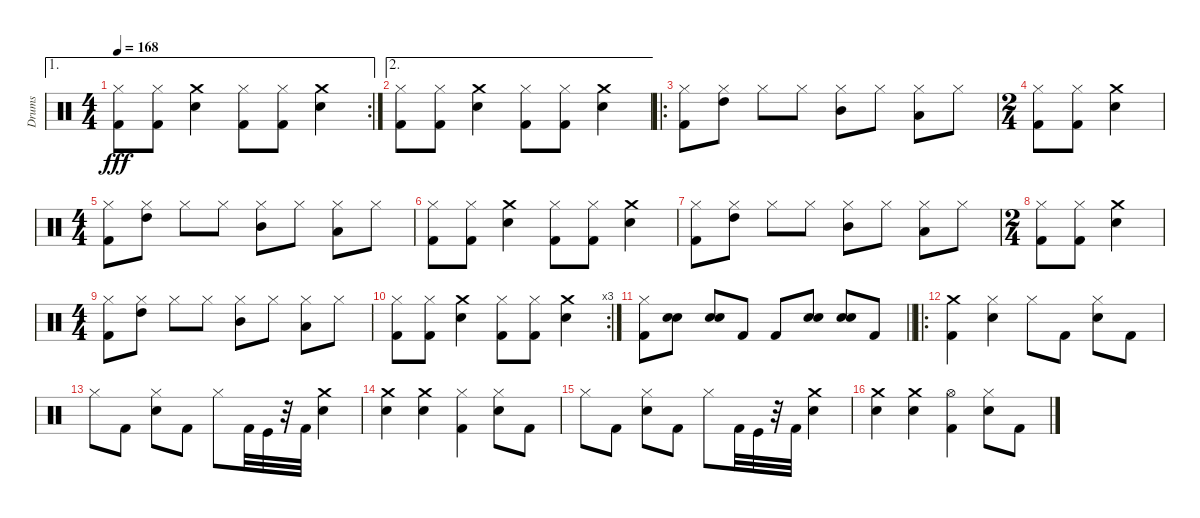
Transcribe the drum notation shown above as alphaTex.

\track ("Drums" "Drums") {instrument percussion}
\staff {score}
\articulation defaults
\ae 1
\rc 2
\ts (4 4)
\tempo 168
\clef neutral
\ks c
("Hi-Hat (closed)" "Kick (hit) 2").8{dy fff} ("Hi-Hat (closed)" "Kick (hit) 2").8 ("Snare (hit) 2" "Crash medium (hit)").4 ("Kick (hit) 2" "Hi-Hat (closed)").8 ("Kick (hit) 2" "Hi-Hat (closed)").8 ("Crash medium (hit)" "Snare (hit) 2").4 |
\ae 2
("Hi-Hat (closed)" "Kick (hit) 2").8 ("Hi-Hat (closed)" "Kick (hit) 2").8 ("Snare (hit) 2" "Crash medium (hit)").4 ("Kick (hit) 2" "Hi-Hat (closed)").8 ("Kick (hit) 2" "Hi-Hat (closed)").8 ("Crash medium (hit)" "Snare (hit) 2").4 |
\ro
("Hi-Hat (closed)" "Kick (hit) 2").8 ("High Tom (hit)" "Hi-Hat (closed)").8{balance 16} "Hi-Hat (closed)".8{balance 8} "Hi-Hat (closed)".8 ("Mid Tom (hit)" "Hi-Hat (closed)").8 "Hi-Hat (closed)".8 ("Low Tom (hit)" "Hi-Hat (closed)").8{balance 0} "Hi-Hat (closed)".8{balance 8} |
\ts (2 4)
("Kick (hit) 2" "Hi-Hat (closed)").8 ("Kick (hit) 2" "Hi-Hat (closed)").8 ("Snare (hit) 2" "Crash medium (hit)").4 |
\ts (4 4)
("Hi-Hat (closed)" "Kick (hit) 2").8 ("High Tom (hit)" "Hi-Hat (closed)").8{balance 16} "Hi-Hat (closed)".8{balance 8} "Hi-Hat (closed)".8 ("Mid Tom (hit)" "Hi-Hat (closed)").8 "Hi-Hat (closed)".8 ("Hi-Hat (closed)" "Low Tom (hit)").8{balance 0} "Hi-Hat (closed)".8{balance 8} |
("Hi-Hat (closed)" "Kick (hit) 2").8 ("Hi-Hat (closed)" "Kick (hit) 2").8 ("Snare (hit) 2" "Crash medium (hit)").4 ("Kick (hit) 2" "Hi-Hat (closed)").8 ("Kick (hit) 2" "Hi-Hat (closed)").8 ("Crash medium (hit)" "Snare (hit) 2").4 |
("Hi-Hat (closed)" "Kick (hit) 2").8 ("High Tom (hit)" "Hi-Hat (closed)").8{balance 16} "Hi-Hat (closed)".8{balance 8} "Hi-Hat (closed)".8 ("Mid Tom (hit)" "Hi-Hat (closed)").8 "Hi-Hat (closed)".8 ("Hi-Hat (closed)" "Low Tom (hit)").8{balance 0} "Hi-Hat (closed)".8{balance 8} |
\ts (2 4)
("Hi-Hat (closed)" "Kick (hit) 2").8 ("Hi-Hat (closed)" "Kick (hit) 2").8 ("Crash medium (hit)" "Snare (hit) 2").4 |
\ts (4 4)
("Hi-Hat (closed)" "Kick (hit) 2").8 ("High Tom (hit)" "Hi-Hat (closed)").8{balance 16} "Hi-Hat (closed)".8{balance 8} "Hi-Hat (closed)".8 ("Mid Tom (hit)" "Hi-Hat (closed)").8 "Hi-Hat (closed)".8 ("Hi-Hat (closed)" "Low Tom (hit)").8{balance 0} "Hi-Hat (closed)".8{balance 8} |
\rc 3
("Hi-Hat (closed)" "Kick (hit) 2").8 ("Hi-Hat (closed)" "Kick (hit) 2").8 ("Snare (hit) 2" "Crash medium (hit)").4 ("Kick (hit) 2" "Hi-Hat (closed)").8 ("Kick (hit) 2" "Hi-Hat (closed)").8 ("Crash medium (hit)" "Snare (hit) 2").4 |
\barLineRight lightlight
("Kick (hit) 2" "Hi-Hat (closed)").8 ("Snare (hit) 2" "Snare (hit) 2").8 ("Snare (hit) 2" "Snare (hit) 2").8 "Kick (hit) 2".8 "Kick (hit) 2".8 ("Snare (hit) 2" "Snare (hit) 2").8 ("Snare (hit) 2" "Snare (hit) 2").8 "Kick (hit) 2".8 |
\ro
("Kick (hit) 2" "Crash medium (hit)").4 ("Hi-Hat (closed)" "Snare (hit) 2").4 "Hi-Hat (closed)".8 "Kick (hit) 2".8 ("Snare (hit) 2" "Hi-Hat (closed)").8 "Kick (hit) 2".8 |
"Hi-Hat (closed)".8 "Kick (hit) 2".8 ("Snare (hit) 2" "Hi-Hat (closed)").8 "Kick (hit) 2".8 "Hi-Hat (closed)".8 "Kick (hit) 2".32 "Kick (hit)".32 r.32 "Kick (hit) 2".32 ("Crash medium (hit)" "Snare (hit) 2").4 |
("Crash medium (hit)" "Snare (hit) 2").4 ("Crash medium (hit)" "Snare (hit) 2").4 ("Hi-Hat (closed)" "Kick (hit) 2").4 ("Snare (hit) 2" "Hi-Hat (closed)").8 "Kick (hit) 2".8 |
"Hi-Hat (closed)".8 "Kick (hit) 2".8 ("Snare (hit) 2" "Hi-Hat (closed)").8 "Kick (hit) 2".8 "Hi-Hat (closed)".8 "Kick (hit) 2".32 "Kick (hit)".32 r.32 "Kick (hit) 2".32 ("Crash medium (hit)" "Snare (hit) 2").4 |
("Crash medium (hit)" "Snare (hit) 2").4 ("Crash medium (hit)" "Snare (hit) 2").4 ("Hi-Hat (open)" "Kick (hit) 2").4 ("Snare (hit) 2" "Hi-Hat (closed)").8 "Kick (hit) 2".8
